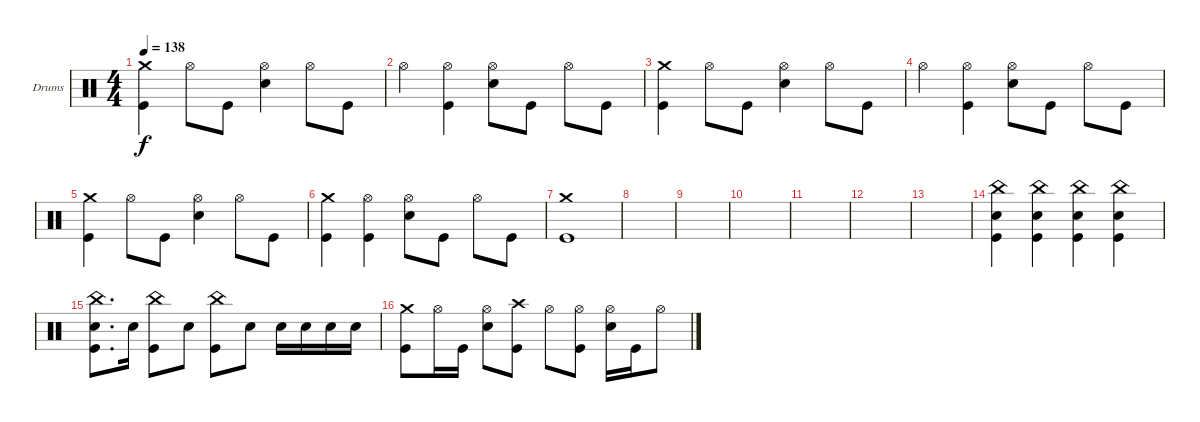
\defaultSystemsLayout 4
\bracketExtendMode groupsimilarinstruments
\firstSystemTrackNameOrientation horizontal
\otherSystemsTrackNameOrientation horizontal
\track ("Drumkit" "Drums") {instrument percussion}
\staff {score}
\articulation defaults
\ts (4 4)
\tempo 138
\clef neutral
\ks c
("Kick (hit)" "Crash medium (hit)").4{dy f} "Hi-Hat (open)".8 "Kick (hit)".8 ("Hi-Hat (open)" "Snare (hit) 2").4 "Hi-Hat (open)".8 "Kick (hit)".8 |
"Hi-Hat (open)".4 ("Hi-Hat (open)" "Kick (hit)").4 ("Hi-Hat (open)" "Snare (hit) 2").8 "Kick (hit)".8 "Hi-Hat (open)".8 "Kick (hit)".8 |
("Kick (hit)" "Crash medium (hit)").4 "Hi-Hat (open)".8 "Kick (hit)".8 ("Hi-Hat (open)" "Snare (hit) 2").4 "Hi-Hat (open)".8 "Kick (hit)".8 |
"Hi-Hat (open)".4 ("Hi-Hat (open)" "Kick (hit)").4 ("Hi-Hat (open)" "Snare (hit) 2").8 "Kick (hit)".8 "Hi-Hat (open)".8 "Kick (hit)".8 |
("Kick (hit)" "Crash medium (hit)").4 "Hi-Hat (open)".8 "Kick (hit)".8 ("Hi-Hat (open)" "Snare (hit) 2").4 "Hi-Hat (open)".8 "Kick (hit)".8 |
("Crash medium (hit)" "Kick (hit)").4 ("Hi-Hat (open)" "Kick (hit)").4 ("Hi-Hat (open)" "Snare (hit) 2").8 "Kick (hit)".8 "Hi-Hat (open)".8 "Kick (hit)".8 |
("Kick (hit)" "Crash medium (hit)").1 |
|
|
|
|
|
|
("Kick (hit)" "Snare (hit) 2" "China (hit)").4 ("Kick (hit)" "China (hit)" "Snare (hit) 2").4 ("Kick (hit)" "Snare (hit) 2" "China (hit)").4 ("Kick (hit)" "China (hit)" "Snare (hit) 2").4 |
("Kick (hit)" "China (hit)" "Snare (hit) 2").8{d} "Snare (hit) 2".16 ("Kick (hit)" "China (hit)").8 "Snare (hit) 2".8 ("Kick (hit)" "China (hit)").8 "Snare (hit) 2".8 "Snare (hit) 2".16 "Snare (hit) 2".16 "Snare (hit) 2".16 "Snare (hit) 2".16 |
("Kick (hit)" "Crash medium (hit)").8 "Hi-Hat (open)".16 "Kick (hit)".16 ("Hi-Hat (open)" "Snare (hit) 2").8 ("Kick (hit)" "Crash high (hit)").8 "Hi-Hat (open)".8 ("Hi-Hat (open)" "Kick (hit)").8 ("Hi-Hat (open)" "Snare (hit) 2").16 "Kick (hit)".16 "Hi-Hat (open)".8
